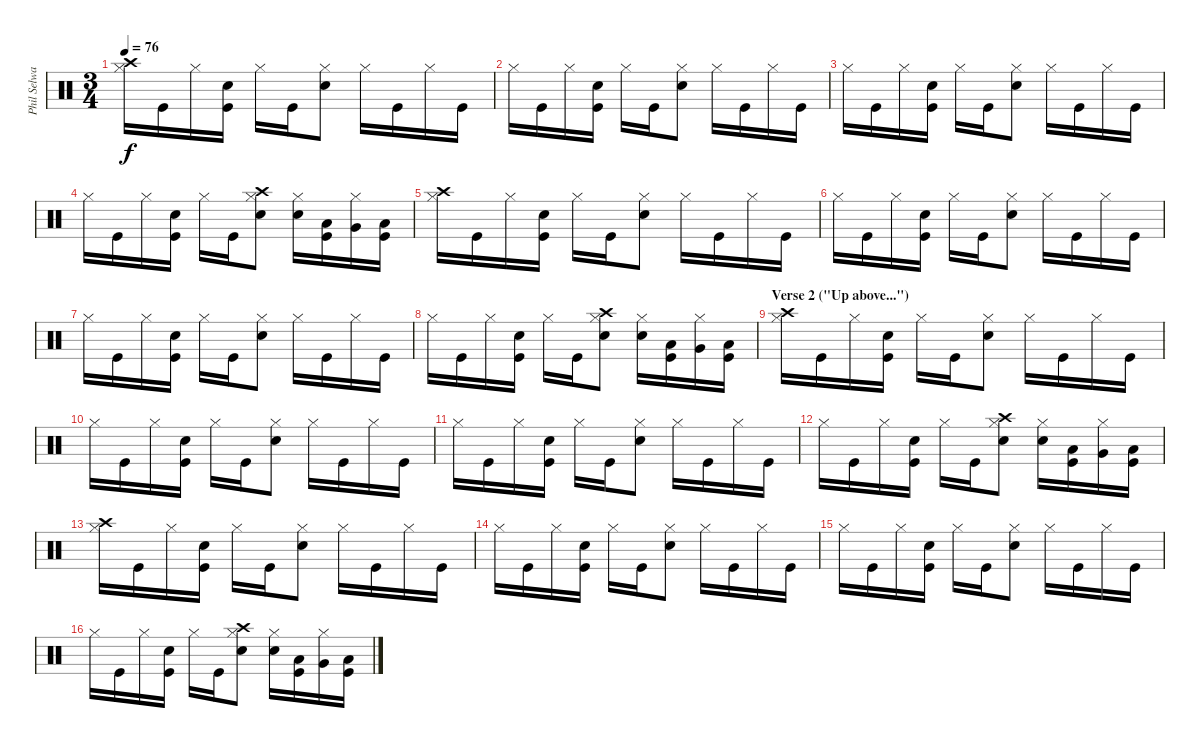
\track ("Phil Selway" "Phil Selwa") {instrument percussion}
\staff {score}
\articulation defaults
\ts (3 4)
\tempo 76
\clef neutral
\ks c
("Hi-Hat (closed)" "Crash high (hit)").16{dy f} "Kick (hit)".16 "Hi-Hat (closed)".16 ("Kick (hit)" "Snare (hit) 2").16 "Hi-Hat (closed)".16 "Kick (hit)".16 ("Snare (hit) 2" "Hi-Hat (closed)").8 "Hi-Hat (closed)".16 "Kick (hit)".16 "Hi-Hat (closed)".16 "Kick (hit)".16 |
"Hi-Hat (closed)".16 "Kick (hit)".16 "Hi-Hat (closed)".16 ("Kick (hit)" "Snare (hit) 2").16 "Hi-Hat (closed)".16 "Kick (hit)".16 ("Snare (hit) 2" "Hi-Hat (closed)").8 "Hi-Hat (closed)".16 "Kick (hit)".16 "Hi-Hat (closed)".16 "Kick (hit)".16 |
"Hi-Hat (closed)".16 "Kick (hit)".16 "Hi-Hat (closed)".16 ("Kick (hit)" "Snare (hit) 2").16 "Hi-Hat (closed)".16 "Kick (hit)".16 ("Snare (hit) 2" "Hi-Hat (closed)").8 "Hi-Hat (closed)".16 "Kick (hit)".16 "Hi-Hat (closed)".16 "Kick (hit)".16 |
"Hi-Hat (closed)".16 "Kick (hit)".16 "Hi-Hat (closed)".16 ("Kick (hit)" "Snare (hit) 2").16 "Hi-Hat (closed)".16 "Kick (hit)".16 ("Snare (hit) 2" "Hi-Hat (closed)" "Crash high (hit)").8 ("Snare (hit) 2" "Hi-Hat (closed)").16 ("Kick (hit)" "Low Tom (hit)").16 ("Hi-Hat (closed)" "Very Low Tom (hit)").16 ("Kick (hit)" "Low Floor Tom (hit)").16 |
("Hi-Hat (closed)" "Crash high (hit)").16 "Kick (hit)".16 "Hi-Hat (closed)".16 ("Kick (hit)" "Snare (hit) 2").16 "Hi-Hat (closed)".16 "Kick (hit)".16 ("Snare (hit) 2" "Hi-Hat (closed)").8 "Hi-Hat (closed)".16 "Kick (hit)".16 "Hi-Hat (closed)".16 "Kick (hit)".16 |
"Hi-Hat (closed)".16 "Kick (hit)".16 "Hi-Hat (closed)".16 ("Kick (hit)" "Snare (hit) 2").16 "Hi-Hat (closed)".16 "Kick (hit)".16 ("Snare (hit) 2" "Hi-Hat (closed)").8 "Hi-Hat (closed)".16 "Kick (hit)".16 "Hi-Hat (closed)".16 "Kick (hit)".16 |
"Hi-Hat (closed)".16 "Kick (hit)".16 "Hi-Hat (closed)".16 ("Kick (hit)" "Snare (hit) 2").16 "Hi-Hat (closed)".16 "Kick (hit)".16 ("Snare (hit) 2" "Hi-Hat (closed)").8 "Hi-Hat (closed)".16 "Kick (hit)".16 "Hi-Hat (closed)".16 "Kick (hit)".16 |
"Hi-Hat (closed)".16 "Kick (hit)".16 "Hi-Hat (closed)".16 ("Kick (hit)" "Snare (hit) 2").16 "Hi-Hat (closed)".16 "Kick (hit)".16 ("Snare (hit) 2" "Hi-Hat (closed)" "Crash high (hit)").8 ("Snare (hit) 2" "Hi-Hat (closed)").16 ("Kick (hit)" "Low Tom (hit)").16 ("Hi-Hat (closed)" "Very Low Tom (hit)").16 ("Kick (hit)" "Low Floor Tom (hit)").16 |
\section ("" "Verse 2 (\"Up above...\")")
("Hi-Hat (closed)" "Crash high (hit)").16 "Kick (hit)".16 "Hi-Hat (closed)".16 ("Kick (hit)" "Snare (hit) 2").16 "Hi-Hat (closed)".16 "Kick (hit)".16 ("Snare (hit) 2" "Hi-Hat (closed)").8 "Hi-Hat (closed)".16 "Kick (hit)".16 "Hi-Hat (closed)".16 "Kick (hit)".16 |
"Hi-Hat (closed)".16 "Kick (hit)".16 "Hi-Hat (closed)".16 ("Kick (hit)" "Snare (hit) 2").16 "Hi-Hat (closed)".16 "Kick (hit)".16 ("Snare (hit) 2" "Hi-Hat (closed)").8 "Hi-Hat (closed)".16 "Kick (hit)".16 "Hi-Hat (closed)".16 "Kick (hit)".16 |
"Hi-Hat (closed)".16 "Kick (hit)".16 "Hi-Hat (closed)".16 ("Kick (hit)" "Snare (hit) 2").16 "Hi-Hat (closed)".16 "Kick (hit)".16 ("Snare (hit) 2" "Hi-Hat (closed)").8 "Hi-Hat (closed)".16 "Kick (hit)".16 "Hi-Hat (closed)".16 "Kick (hit)".16 |
"Hi-Hat (closed)".16 "Kick (hit)".16 "Hi-Hat (closed)".16 ("Kick (hit)" "Snare (hit) 2").16 "Hi-Hat (closed)".16 "Kick (hit)".16 ("Snare (hit) 2" "Hi-Hat (closed)" "Crash high (hit)").8 ("Snare (hit) 2" "Hi-Hat (closed)").16 ("Kick (hit)" "Low Tom (hit)").16 ("Hi-Hat (closed)" "Very Low Tom (hit)").16 ("Kick (hit)" "Low Floor Tom (hit)").16 |
("Hi-Hat (closed)" "Crash high (hit)").16 "Kick (hit)".16 "Hi-Hat (closed)".16 ("Kick (hit)" "Snare (hit) 2").16 "Hi-Hat (closed)".16 "Kick (hit)".16 ("Snare (hit) 2" "Hi-Hat (closed)").8 "Hi-Hat (closed)".16 "Kick (hit)".16 "Hi-Hat (closed)".16 "Kick (hit)".16 |
"Hi-Hat (closed)".16 "Kick (hit)".16 "Hi-Hat (closed)".16 ("Kick (hit)" "Snare (hit) 2").16 "Hi-Hat (closed)".16 "Kick (hit)".16 ("Snare (hit) 2" "Hi-Hat (closed)").8 "Hi-Hat (closed)".16 "Kick (hit)".16 "Hi-Hat (closed)".16 "Kick (hit)".16 |
"Hi-Hat (closed)".16 "Kick (hit)".16 "Hi-Hat (closed)".16 ("Kick (hit)" "Snare (hit) 2").16 "Hi-Hat (closed)".16 "Kick (hit)".16 ("Snare (hit) 2" "Hi-Hat (closed)").8 "Hi-Hat (closed)".16 "Kick (hit)".16 "Hi-Hat (closed)".16 "Kick (hit)".16 |
"Hi-Hat (closed)".16 "Kick (hit)".16 "Hi-Hat (closed)".16 ("Kick (hit)" "Snare (hit) 2").16 "Hi-Hat (closed)".16 "Kick (hit)".16 ("Snare (hit) 2" "Hi-Hat (closed)" "Crash high (hit)").8 ("Snare (hit) 2" "Hi-Hat (closed)").16 ("Kick (hit)" "Low Tom (hit)").16 ("Hi-Hat (closed)" "Very Low Tom (hit)").16 ("Kick (hit)" "Low Floor Tom (hit)").16
